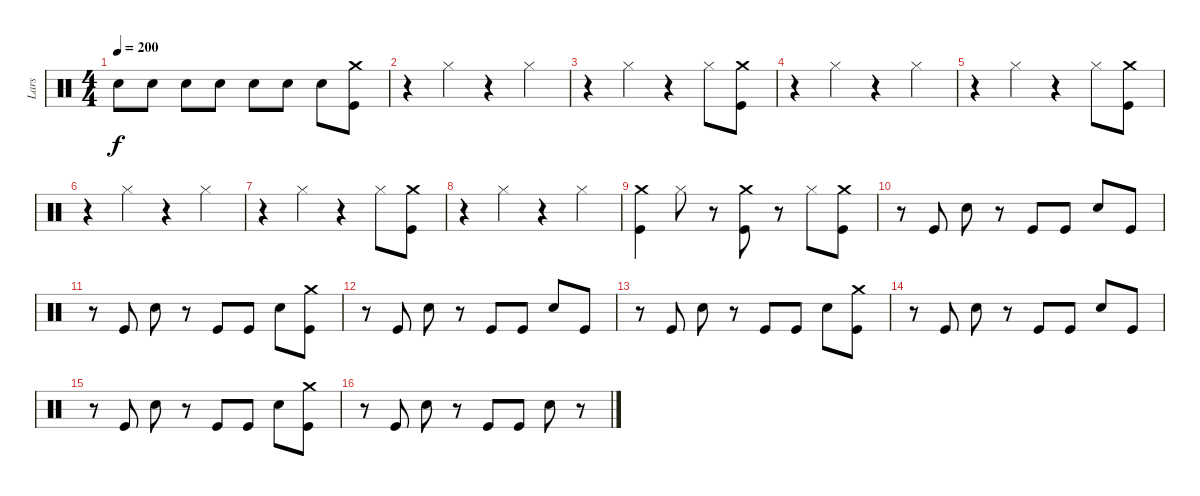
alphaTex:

\track ("Lars" "Lars") {instrument percussion}
\staff {score}
\articulation defaults
\ts (4 4)
\tempo 200
\clef neutral
\ks c "Snare (hit) 2".8{dy f} "Snare (hit) 2".8 "Snare (hit) 2".8 "Snare (hit) 2".8 "Snare (hit) 2".8 "Snare (hit) 2".8 "Snare (hit) 2".8
("Crash medium (hit)" "Kick (hit)").8 |
r.4 "Hi-Hat (closed)".4 r.4 "Hi-Hat (closed)".4 |
r.4 "Hi-Hat (closed)".4 r.4 "Hi-Hat (closed)".8 ("Crash medium (hit)" "Kick (hit)").8 |
r.4 "Hi-Hat (closed)".4 r.4 "Hi-Hat (closed)".4 |
r.4 "Hi-Hat (closed)".4 r.4 "Hi-Hat (closed)".8 ("Crash medium (hit)" "Kick (hit)").8 |
r.4 "Hi-Hat (closed)".4 r.4 "Hi-Hat (closed)".4 |
r.4 "Hi-Hat (closed)".4 r.4 "Hi-Hat (closed)".8 ("Crash medium (hit)" "Kick (hit)").8 |
r.4 "Hi-Hat (closed)".4 r.4 "Hi-Hat (closed)".4 |
("Crash medium (hit)" "Kick (hit)").4 "Hi-Hat (closed)".8 r.8 ("Crash medium (hit)" "Kick (hit)").8 r.8 "Hi-Hat (closed)".8 ("Crash medium (hit)" "Kick (hit)").8 |
r.8 "Kick (hit)".8 "Snare (hit) 2".8 r.8 "Kick (hit)".8 "Kick (hit)".8 "Snare (hit) 2".8 "Kick (hit)".8 |
r.8 "Kick (hit)".8 "Snare (hit) 2".8 r.8 "Kick (hit)".8 "Kick (hit)".8 "Snare (hit) 2".8 ("Crash medium (hit)" "Kick (hit)").8 |
r.8 "Kick (hit)".8 "Snare (hit) 2".8 r.8 "Kick (hit)".8 "Kick (hit)".8 "Snare (hit) 2".8 "Kick (hit)".8 |
r.8 "Kick (hit)".8 "Snare (hit) 2".8 r.8 "Kick (hit)".8 "Kick (hit)".8 "Snare (hit) 2".8 ("Crash medium (hit)" "Kick (hit)").8 |
r.8 "Kick (hit)".8 "Snare (hit) 2".8 r.8 "Kick (hit)".8 "Kick (hit)".8 "Snare (hit) 2".8 "Kick (hit)".8 |
r.8 "Kick (hit)".8 "Snare (hit) 2".8 r.8 "Kick (hit)".8 "Kick (hit)".8 "Snare (hit) 2".8 ("Crash medium (hit)" "Kick (hit)").8 |
r.8 "Kick (hit)".8 "Snare (hit) 2".8 r.8 "Kick (hit)".8 "Kick (hit)".8 "Snare (hit) 2".8 r.8
